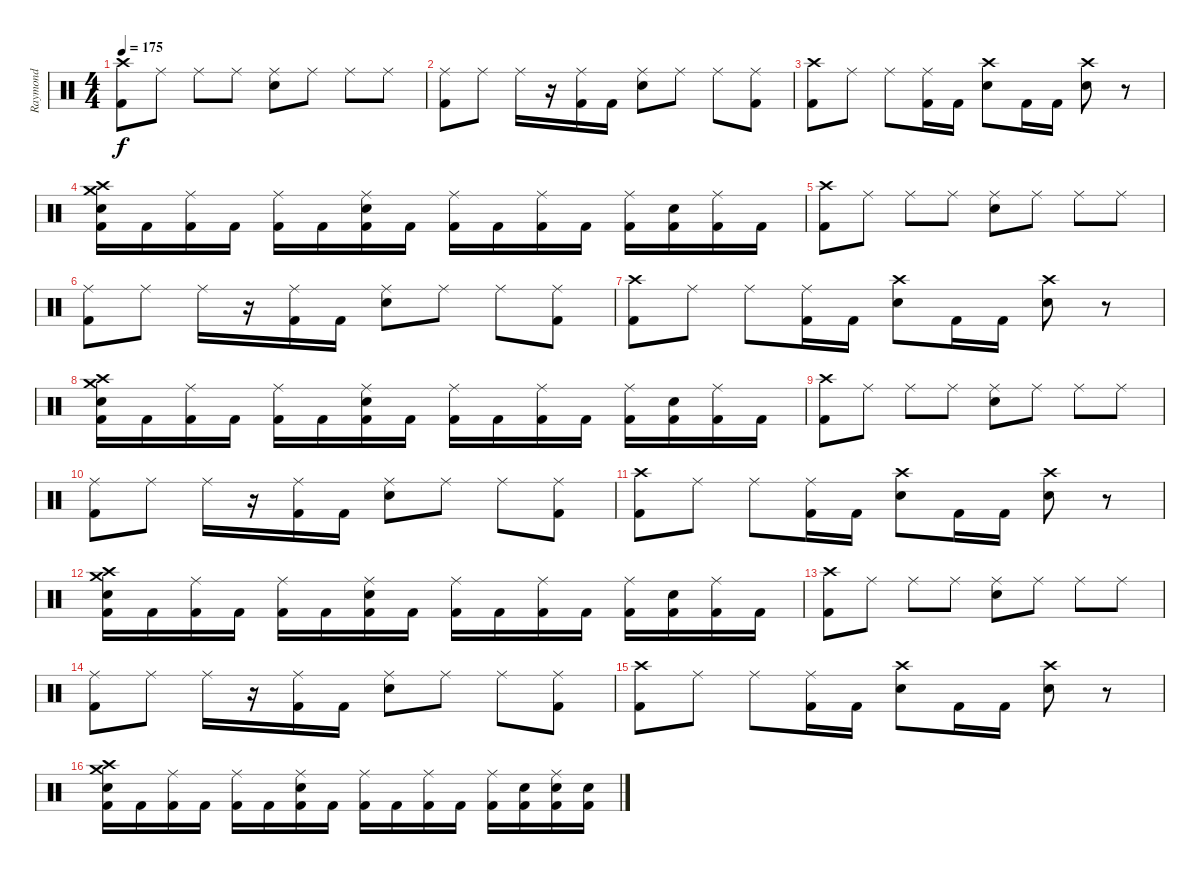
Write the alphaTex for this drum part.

\track ("Raymond" "Raymond") {instrument percussion}
\staff {score}
\articulation defaults
\ts (4 4)
\tempo 175
\clef neutral
\ks c
("Crash high (hit)" "Kick (hit) 2").8{dy f} "Ride (middle)".8 "Ride (middle)".8 "Ride (middle)".8 ("Ride (middle)" "Electric Snare (hit)").8 "Ride (middle)".8 "Ride (middle)".8 "Ride (middle)".8 |
("Ride (middle)" "Kick (hit) 2").8 "Ride (middle)".8 "Ride (middle)".16 r.16 ("Ride (middle)" "Kick (hit) 2").16 "Kick (hit) 2".16 ("Ride (middle)" "Electric Snare (hit)").8 "Ride (middle)".8 "Ride (middle)".8 ("Ride (middle)" "Kick (hit) 2").8 |
("Crash high (hit)" "Kick (hit) 2").8 "Ride (middle)".8 "Ride (middle)".8 ("Ride (middle)" "Kick (hit) 2").16 "Kick (hit) 2".16 ("Crash high (hit)" "Electric Snare (hit)").8 "Kick (hit) 2".16 "Kick (hit) 2".16 ("Crash high (hit)" "Electric Snare (hit)").8 r.8 |
("Crash high (hit)" "Crash medium (hit)" "Electric Snare (hit)" "Kick (hit) 2").16 "Kick (hit) 2".16 ("Ride (middle)" "Kick (hit) 2").16 "Kick (hit) 2".16 ("Ride (middle)" "Kick (hit) 2").16 "Kick (hit) 2".16 ("Ride (middle)" "Electric Snare (hit)" "Kick (hit) 2").16 "Kick (hit) 2".16 ("Ride (middle)" "Kick (hit) 2").16 "Kick (hit) 2".16 ("Ride (middle)" "Kick (hit) 2").16 "Kick (hit) 2".16 ("Ride (middle)" "Kick (hit) 2").16 ("Electric Snare (hit)" "Kick (hit) 2").16 ("Ride (middle)" "Kick (hit) 2").16 "Kick (hit) 2".16 |
("Crash high (hit)" "Kick (hit) 2").8 "Ride (middle)".8 "Ride (middle)".8 "Ride (middle)".8 ("Ride (middle)" "Electric Snare (hit)").8 "Ride (middle)".8 "Ride (middle)".8 "Ride (middle)".8 |
("Ride (middle)" "Kick (hit) 2").8 "Ride (middle)".8 "Ride (middle)".16 r.16 ("Ride (middle)" "Kick (hit) 2").16 "Kick (hit) 2".16 ("Ride (middle)" "Electric Snare (hit)").8 "Ride (middle)".8 "Ride (middle)".8 ("Ride (middle)" "Kick (hit) 2").8 |
("Crash high (hit)" "Kick (hit) 2").8 "Ride (middle)".8 "Ride (middle)".8 ("Ride (middle)" "Kick (hit) 2").16 "Kick (hit) 2".16 ("Crash high (hit)" "Electric Snare (hit)").8 "Kick (hit) 2".16 "Kick (hit) 2".16 ("Crash high (hit)" "Electric Snare (hit)").8 r.8 |
("Crash high (hit)" "Crash medium (hit)" "Electric Snare (hit)" "Kick (hit) 2").16 "Kick (hit) 2".16 ("Ride (middle)" "Kick (hit) 2").16 "Kick (hit) 2".16 ("Ride (middle)" "Kick (hit) 2").16 "Kick (hit) 2".16 ("Ride (middle)" "Electric Snare (hit)" "Kick (hit) 2").16 "Kick (hit) 2".16 ("Ride (middle)" "Kick (hit) 2").16 "Kick (hit) 2".16 ("Ride (middle)" "Kick (hit) 2").16 "Kick (hit) 2".16 ("Ride (middle)" "Kick (hit) 2").16 ("Electric Snare (hit)" "Kick (hit) 2").16 ("Ride (middle)" "Kick (hit) 2").16 "Kick (hit) 2".16 |
("Crash high (hit)" "Kick (hit) 2").8 "Ride (middle)".8 "Ride (middle)".8 "Ride (middle)".8 ("Ride (middle)" "Electric Snare (hit)").8 "Ride (middle)".8 "Ride (middle)".8 "Ride (middle)".8 |
("Ride (middle)" "Kick (hit) 2").8 "Ride (middle)".8 "Ride (middle)".16 r.16 ("Ride (middle)" "Kick (hit) 2").16 "Kick (hit) 2".16 ("Ride (middle)" "Electric Snare (hit)").8 "Ride (middle)".8 "Ride (middle)".8 ("Ride (middle)" "Kick (hit) 2").8 |
("Crash high (hit)" "Kick (hit) 2").8 "Ride (middle)".8 "Ride (middle)".8 ("Ride (middle)" "Kick (hit) 2").16 "Kick (hit) 2".16 ("Crash high (hit)" "Electric Snare (hit)").8 "Kick (hit) 2".16 "Kick (hit) 2".16 ("Crash high (hit)" "Electric Snare (hit)").8 r.8 |
("Crash high (hit)" "Crash medium (hit)" "Electric Snare (hit)" "Kick (hit) 2").16 "Kick (hit) 2".16 ("Ride (middle)" "Kick (hit) 2").16 "Kick (hit) 2".16 ("Ride (middle)" "Kick (hit) 2").16 "Kick (hit) 2".16 ("Ride (middle)" "Electric Snare (hit)" "Kick (hit) 2").16 "Kick (hit) 2".16 ("Ride (middle)" "Kick (hit) 2").16 "Kick (hit) 2".16 ("Ride (middle)" "Kick (hit) 2").16 "Kick (hit) 2".16 ("Ride (middle)" "Kick (hit) 2").16 ("Electric Snare (hit)" "Kick (hit) 2").16 ("Ride (middle)" "Kick (hit) 2").16 "Kick (hit) 2".16 |
("Crash high (hit)" "Kick (hit) 2").8 "Ride (middle)".8 "Ride (middle)".8 "Ride (middle)".8 ("Ride (middle)" "Electric Snare (hit)").8 "Ride (middle)".8 "Ride (middle)".8 "Ride (middle)".8 |
("Ride (middle)" "Kick (hit) 2").8 "Ride (middle)".8 "Ride (middle)".16 r.16 ("Ride (middle)" "Kick (hit) 2").16 "Kick (hit) 2".16 ("Ride (middle)" "Electric Snare (hit)").8 "Ride (middle)".8 "Ride (middle)".8 ("Ride (middle)" "Kick (hit) 2").8 |
("Crash high (hit)" "Kick (hit) 2").8 "Ride (middle)".8 "Ride (middle)".8 ("Ride (middle)" "Kick (hit) 2").16 "Kick (hit) 2".16 ("Crash high (hit)" "Electric Snare (hit)").8 "Kick (hit) 2".16 "Kick (hit) 2".16 ("Crash high (hit)" "Electric Snare (hit)").8 r.8 |
("Crash high (hit)" "Crash medium (hit)" "Electric Snare (hit)" "Kick (hit) 2").16 "Kick (hit) 2".16 ("Ride (middle)" "Kick (hit) 2").16 "Kick (hit) 2".16 ("Ride (middle)" "Kick (hit) 2").16 "Kick (hit) 2".16 ("Ride (middle)" "Electric Snare (hit)" "Kick (hit) 2").16 "Kick (hit) 2".16 ("Ride (middle)" "Kick (hit) 2").16 "Kick (hit) 2".16 ("Ride (middle)" "Kick (hit) 2").16 "Kick (hit) 2".16 ("Ride (middle)" "Kick (hit) 2").16 ("Electric Snare (hit)" "Kick (hit) 2").16 ("Ride (middle)" "Electric Snare (hit)" "Kick (hit) 2").16 ("Electric Snare (hit)" "Kick (hit) 2").16
